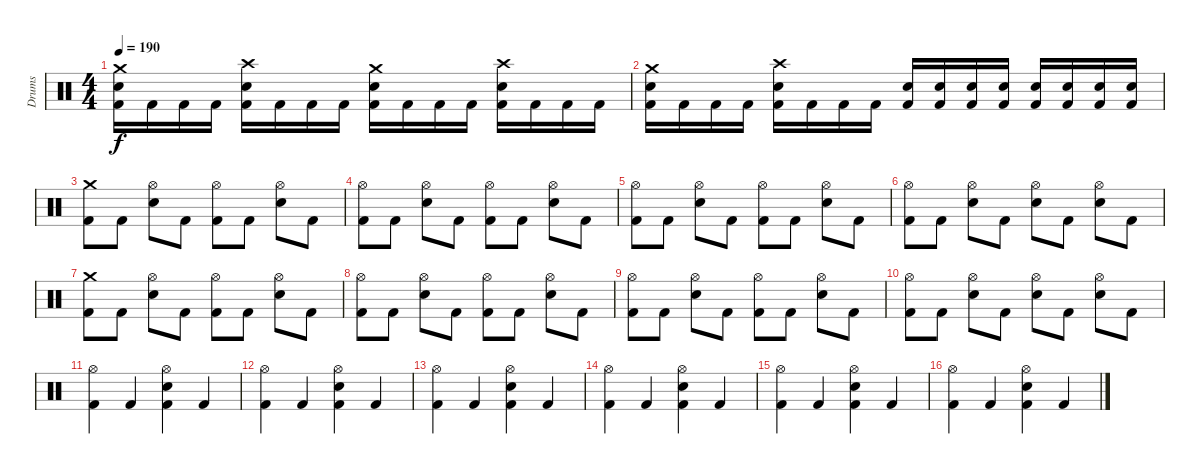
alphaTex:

\track ("Drums" "Drums") {instrument percussion}
\staff {score}
\articulation defaults
\ts (4 4)
\tempo 190
\clef neutral
\ks c
("Crash medium (hit)" "Kick (hit) 2" "Snare (hit) 2").16{dy f} "Kick (hit) 2".16 "Kick (hit) 2".16 "Kick (hit) 2".16 ("Crash high (hit)" "Kick (hit) 2" "Snare (hit) 2").16 "Kick (hit) 2".16 "Kick (hit) 2".16 "Kick (hit) 2".16 ("Crash medium (hit)" "Kick (hit) 2" "Snare (hit) 2").16 "Kick (hit) 2".16 "Kick (hit) 2".16 "Kick (hit) 2".16 ("Crash high (hit)" "Kick (hit) 2" "Snare (hit) 2").16 "Kick (hit) 2".16 "Kick (hit) 2".16 "Kick (hit) 2".16 |
("Crash medium (hit)" "Kick (hit) 2" "Snare (hit) 2").16 "Kick (hit) 2".16 "Kick (hit) 2".16 "Kick (hit) 2".16 ("Crash high (hit)" "Kick (hit) 2" "Snare (hit) 2").16 "Kick (hit) 2".16 "Kick (hit) 2".16 "Kick (hit) 2".16 ("Kick (hit) 2" "Snare (hit) 2").16 ("Kick (hit) 2" "Snare (hit) 2").16 ("Kick (hit) 2" "Snare (hit) 2").16 ("Kick (hit) 2" "Snare (hit) 2").16 ("Kick (hit) 2" "Snare (hit) 2").16 ("Kick (hit) 2" "Snare (hit) 2").16 ("Kick (hit) 2" "Snare (hit) 2").16 ("Kick (hit) 2" "Snare (hit) 2").16 |
("Crash medium (hit)" "Kick (hit) 2").8 "Kick (hit) 2".8 ("Hi-Hat (open)" "Snare (hit) 2").8 "Kick (hit) 2".8 ("Hi-Hat (open)" "Kick (hit) 2").8 "Kick (hit) 2".8 ("Hi-Hat (open)" "Snare (hit) 2").8 "Kick (hit) 2".8 |
("Hi-Hat (open)" "Kick (hit) 2").8 "Kick (hit) 2".8 ("Hi-Hat (open)" "Snare (hit) 2").8 "Kick (hit) 2".8 ("Hi-Hat (open)" "Kick (hit) 2").8 "Kick (hit) 2".8 ("Hi-Hat (open)" "Snare (hit) 2").8 "Kick (hit) 2".8 |
("Hi-Hat (open)" "Kick (hit) 2").8 "Kick (hit) 2".8 ("Hi-Hat (open)" "Snare (hit) 2").8 "Kick (hit) 2".8 ("Hi-Hat (open)" "Kick (hit) 2").8 "Kick (hit) 2".8 ("Hi-Hat (open)" "Snare (hit) 2").8 "Kick (hit) 2".8 |
("Hi-Hat (open)" "Kick (hit) 2").8 "Kick (hit) 2".8 ("Hi-Hat (open)" "Snare (hit) 2").8 "Kick (hit) 2".8 ("Hi-Hat (open)" "Snare (hit) 2").8 "Kick (hit) 2".8 ("Hi-Hat (open)" "Snare (hit) 2").8 "Kick (hit) 2".8 |
("Crash medium (hit)" "Kick (hit) 2").8 "Kick (hit) 2".8 ("Hi-Hat (open)" "Snare (hit) 2").8 "Kick (hit) 2".8 ("Hi-Hat (open)" "Kick (hit) 2").8 "Kick (hit) 2".8 ("Hi-Hat (open)" "Snare (hit) 2").8 "Kick (hit) 2".8 |
("Hi-Hat (open)" "Kick (hit) 2").8 "Kick (hit) 2".8 ("Hi-Hat (open)" "Snare (hit) 2").8 "Kick (hit) 2".8 ("Hi-Hat (open)" "Kick (hit) 2").8 "Kick (hit) 2".8 ("Hi-Hat (open)" "Snare (hit) 2").8 "Kick (hit) 2".8 |
("Hi-Hat (open)" "Kick (hit) 2").8 "Kick (hit) 2".8 ("Hi-Hat (open)" "Snare (hit) 2").8 "Kick (hit) 2".8 ("Hi-Hat (open)" "Kick (hit) 2").8 "Kick (hit) 2".8 ("Hi-Hat (open)" "Snare (hit) 2").8 "Kick (hit) 2".8 |
("Hi-Hat (open)" "Kick (hit) 2").8 "Kick (hit) 2".8 ("Hi-Hat (open)" "Snare (hit) 2").8 "Kick (hit) 2".8 ("Hi-Hat (open)" "Snare (hit) 2").8 "Kick (hit) 2".8 ("Hi-Hat (open)" "Snare (hit) 2").8 "Kick (hit) 2".8 |
("Hi-Hat (open)" "Kick (hit) 2").4 "Kick (hit) 2".4 ("Hi-Hat (open)" "Kick (hit) 2" "Snare (hit) 2").4 "Kick (hit) 2".4 |
("Hi-Hat (open)" "Kick (hit) 2").4 "Kick (hit) 2".4 ("Hi-Hat (open)" "Kick (hit) 2" "Snare (hit) 2").4 "Kick (hit) 2".4 |
("Hi-Hat (open)" "Kick (hit) 2").4 "Kick (hit) 2".4 ("Hi-Hat (open)" "Kick (hit) 2" "Snare (hit) 2").4 "Kick (hit) 2".4 |
("Hi-Hat (open)" "Kick (hit) 2").4 "Kick (hit) 2".4 ("Hi-Hat (open)" "Kick (hit) 2" "Snare (hit) 2").4 "Kick (hit) 2".4 |
("Hi-Hat (open)" "Kick (hit) 2").4 "Kick (hit) 2".4 ("Hi-Hat (open)" "Kick (hit) 2" "Snare (hit) 2").4 "Kick (hit) 2".4 |
("Hi-Hat (open)" "Kick (hit) 2").4 "Kick (hit) 2".4 ("Hi-Hat (open)" "Kick (hit) 2" "Snare (hit) 2").4 "Kick (hit) 2".4
